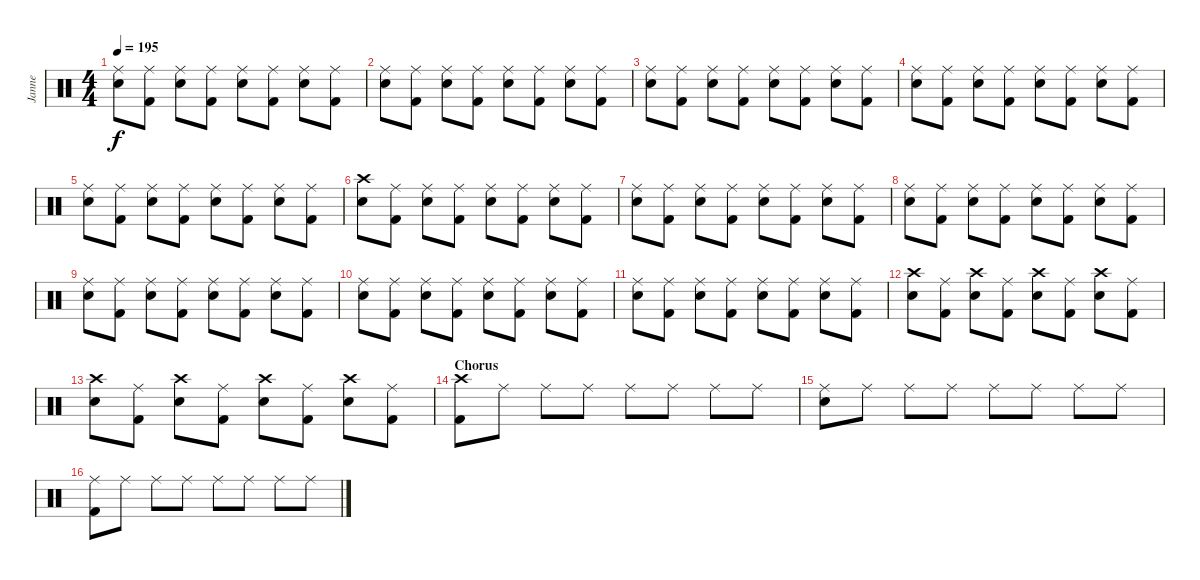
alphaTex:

\track ("Janne" "Janne") {instrument percussion}
\staff {score}
\articulation defaults
\ts (4 4)
\tempo 195
\clef neutral
\ks c
("Ride (middle)" "Electric Snare (hit)").8{dy f} ("Ride (middle)" "Kick (hit) 2").8 ("Ride (middle)" "Electric Snare (hit)").8 ("Ride (middle)" "Kick (hit) 2").8 ("Ride (middle)" "Electric Snare (hit)").8 ("Ride (middle)" "Kick (hit) 2").8 ("Ride (middle)" "Electric Snare (hit)").8 ("Ride (middle)" "Kick (hit) 2").8 |
("Ride (middle)" "Electric Snare (hit)").8 ("Ride (middle)" "Kick (hit) 2").8 ("Ride (middle)" "Electric Snare (hit)").8 ("Ride (middle)" "Kick (hit) 2").8 ("Ride (middle)" "Electric Snare (hit)").8 ("Ride (middle)" "Kick (hit) 2").8 ("Ride (middle)" "Electric Snare (hit)").8 ("Ride (middle)" "Kick (hit) 2").8 |
("Ride (middle)" "Electric Snare (hit)").8 ("Ride (middle)" "Kick (hit) 2").8 ("Ride (middle)" "Electric Snare (hit)").8 ("Ride (middle)" "Kick (hit) 2").8 ("Ride (middle)" "Electric Snare (hit)").8 ("Ride (middle)" "Kick (hit) 2").8 ("Ride (middle)" "Electric Snare (hit)").8 ("Ride (middle)" "Kick (hit) 2").8 |
("Ride (middle)" "Electric Snare (hit)").8 ("Ride (middle)" "Kick (hit) 2").8 ("Ride (middle)" "Electric Snare (hit)").8 ("Ride (middle)" "Kick (hit) 2").8 ("Ride (middle)" "Electric Snare (hit)").8 ("Ride (middle)" "Kick (hit) 2").8 ("Ride (middle)" "Electric Snare (hit)").8 ("Ride (middle)" "Kick (hit) 2").8 |
("Ride (middle)" "Electric Snare (hit)").8 ("Ride (middle)" "Kick (hit) 2").8 ("Ride (middle)" "Electric Snare (hit)").8 ("Ride (middle)" "Kick (hit) 2").8 ("Ride (middle)" "Electric Snare (hit)").8 ("Ride (middle)" "Kick (hit) 2").8 ("Ride (middle)" "Electric Snare (hit)").8 ("Ride (middle)" "Kick (hit) 2").8 |
("Crash high (hit)" "Electric Snare (hit)").8 ("Ride (middle)" "Kick (hit) 2").8 ("Ride (middle)" "Electric Snare (hit)").8 ("Ride (middle)" "Kick (hit) 2").8 ("Ride (middle)" "Electric Snare (hit)").8 ("Ride (middle)" "Kick (hit) 2").8 ("Ride (middle)" "Electric Snare (hit)").8 ("Ride (middle)" "Kick (hit) 2").8 |
("Ride (middle)" "Electric Snare (hit)").8 ("Ride (middle)" "Kick (hit) 2").8 ("Ride (middle)" "Electric Snare (hit)").8 ("Ride (middle)" "Kick (hit) 2").8 ("Ride (middle)" "Electric Snare (hit)").8 ("Ride (middle)" "Kick (hit) 2").8 ("Ride (middle)" "Electric Snare (hit)").8 ("Ride (middle)" "Kick (hit) 2").8 |
("Ride (middle)" "Electric Snare (hit)").8 ("Ride (middle)" "Kick (hit) 2").8 ("Ride (middle)" "Electric Snare (hit)").8 ("Ride (middle)" "Kick (hit) 2").8 ("Ride (middle)" "Electric Snare (hit)").8 ("Ride (middle)" "Kick (hit) 2").8 ("Ride (middle)" "Electric Snare (hit)").8 ("Ride (middle)" "Kick (hit) 2").8 |
("Ride (middle)" "Electric Snare (hit)").8 ("Ride (middle)" "Kick (hit) 2").8 ("Ride (middle)" "Electric Snare (hit)").8 ("Ride (middle)" "Kick (hit) 2").8 ("Ride (middle)" "Electric Snare (hit)").8 ("Ride (middle)" "Kick (hit) 2").8 ("Ride (middle)" "Electric Snare (hit)").8 ("Ride (middle)" "Kick (hit) 2").8 |
("Ride (middle)" "Electric Snare (hit)").8 ("Ride (middle)" "Kick (hit) 2").8 ("Ride (middle)" "Electric Snare (hit)").8 ("Ride (middle)" "Kick (hit) 2").8 ("Ride (middle)" "Electric Snare (hit)").8 ("Ride (middle)" "Kick (hit) 2").8 ("Ride (middle)" "Electric Snare (hit)").8 ("Ride (middle)" "Kick (hit) 2").8 |
("Ride (middle)" "Electric Snare (hit)").8 ("Ride (middle)" "Kick (hit) 2").8 ("Ride (middle)" "Electric Snare (hit)").8 ("Ride (middle)" "Kick (hit) 2").8 ("Ride (middle)" "Electric Snare (hit)").8 ("Ride (middle)" "Kick (hit) 2").8 ("Ride (middle)" "Electric Snare (hit)").8 ("Ride (middle)" "Kick (hit) 2").8 |
("Crash high (hit)" "Electric Snare (hit)").8 ("Ride (middle)" "Kick (hit) 2").8 ("Crash high (hit)" "Electric Snare (hit)").8 ("Ride (middle)" "Kick (hit) 2").8 ("Crash high (hit)" "Electric Snare (hit)").8 ("Ride (middle)" "Kick (hit) 2").8 ("Crash high (hit)" "Electric Snare (hit)").8 ("Ride (middle)" "Kick (hit) 2").8 |
("Crash high (hit)" "Electric Snare (hit)").8 ("Ride (middle)" "Kick (hit) 2").8 ("Crash high (hit)" "Electric Snare (hit)").8 ("Ride (middle)" "Kick (hit) 2").8 ("Crash high (hit)" "Electric Snare (hit)").8 ("Ride (middle)" "Kick (hit) 2").8 ("Crash high (hit)" "Electric Snare (hit)").8 ("Ride (middle)" "Kick (hit) 2").8 |
\section ("" "Chorus")
("Crash high (hit)" "Kick (hit) 2").8 "Ride (middle)".8 "Ride (middle)".8 "Ride (middle)".8 "Ride (middle)".8 "Ride (middle)".8 "Ride (middle)".8 "Ride (middle)".8 |
("Ride (middle)" "Electric Snare (hit)").8 "Ride (middle)".8 "Ride (middle)".8 "Ride (middle)".8 "Ride (middle)".8 "Ride (middle)".8 "Ride (middle)".8 "Ride (middle)".8 |
("Ride (middle)" "Kick (hit) 2").8 "Ride (middle)".8 "Ride (middle)".8 "Ride (middle)".8 "Ride (middle)".8 "Ride (middle)".8 "Ride (middle)".8 "Ride (middle)".8
